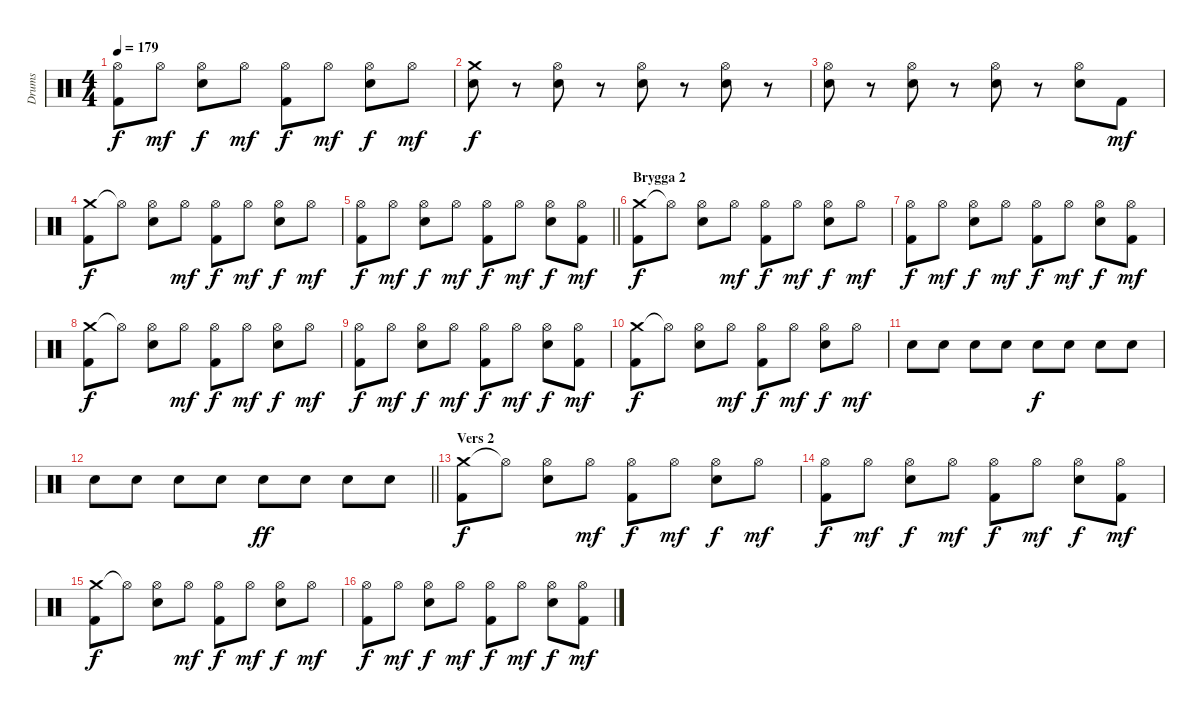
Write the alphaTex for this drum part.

\track ("Drums" "Drums") {instrument percussion}
\staff {score}
\articulation defaults
\ts (4 4)
\tempo 179
\clef neutral
\ks c
("Hi-Hat (open)" "Kick (hit) 2").8{dy f} "Hi-Hat (open)".8{dy mf} ("Hi-Hat (open)" "Electric Snare (hit)").8{dy f} "Hi-Hat (open)".8{dy mf} ("Hi-Hat (open)" "Kick (hit) 2").8{dy f} "Hi-Hat (open)".8{dy mf} ("Hi-Hat (open)" "Electric Snare (hit)").8{dy f} "Hi-Hat (open)".8{dy mf} |
("Crash medium (hit)" "Electric Snare (hit)").8{dy f} r.8 ("Hi-Hat (open)" "Electric Snare (hit)").8 r.8 ("Hi-Hat (open)" "Electric Snare (hit)").8 r.8 ("Hi-Hat (open)" "Electric Snare (hit)").8 r.8 |
("Hi-Hat (open)" "Electric Snare (hit)").8 r.8 ("Hi-Hat (open)" "Electric Snare (hit)").8 r.8 ("Hi-Hat (open)" "Electric Snare (hit)").8 r.8 ("Hi-Hat (open)" "Electric Snare (hit)").8 "Kick (hit) 2".8{dy mf} |
("Crash medium (hit)" "Kick (hit) 2").8{dy f} "Hi-Hat (open)"{t}.8 ("Hi-Hat (open)" "Electric Snare (hit)").8 "Hi-Hat (open)".8{dy mf} ("Hi-Hat (open)" "Kick (hit) 2").8{dy f} "Hi-Hat (open)".8{dy mf} ("Hi-Hat (open)" "Electric Snare (hit)").8{dy f} "Hi-Hat (open)".8{dy mf} |
\barLineRight lightlight
("Hi-Hat (open)" "Kick (hit) 2").8{dy f} "Hi-Hat (open)".8{dy mf} ("Hi-Hat (open)" "Electric Snare (hit)").8{dy f} "Hi-Hat (open)".8{dy mf} ("Hi-Hat (open)" "Kick (hit) 2").8{dy f} "Hi-Hat (open)".8{dy mf} ("Hi-Hat (open)" "Electric Snare (hit)").8{dy f} ("Hi-Hat (open)" "Kick (hit) 2").8{dy mf} |
\section ("" "Brygga 2")
("Crash medium (hit)" "Kick (hit) 2").8{dy f} "Hi-Hat (open)"{t}.8 ("Hi-Hat (open)" "Electric Snare (hit)").8 "Hi-Hat (open)".8{dy mf} ("Hi-Hat (open)" "Kick (hit) 2").8{dy f} "Hi-Hat (open)".8{dy mf} ("Hi-Hat (open)" "Electric Snare (hit)").8{dy f} "Hi-Hat (open)".8{dy mf} |
("Hi-Hat (open)" "Kick (hit) 2").8{dy f} "Hi-Hat (open)".8{dy mf} ("Hi-Hat (open)" "Electric Snare (hit)").8{dy f} "Hi-Hat (open)".8{dy mf} ("Hi-Hat (open)" "Kick (hit) 2").8{dy f} "Hi-Hat (open)".8{dy mf} ("Hi-Hat (open)" "Electric Snare (hit)").8{dy f} ("Hi-Hat (open)" "Kick (hit) 2").8{dy mf} |
("Crash medium (hit)" "Kick (hit) 2").8{dy f} "Hi-Hat (open)"{t}.8 ("Hi-Hat (open)" "Electric Snare (hit)").8 "Hi-Hat (open)".8{dy mf} ("Hi-Hat (open)" "Kick (hit) 2").8{dy f} "Hi-Hat (open)".8{dy mf} ("Hi-Hat (open)" "Electric Snare (hit)").8{dy f} "Hi-Hat (open)".8{dy mf} |
("Hi-Hat (open)" "Kick (hit) 2").8{dy f} "Hi-Hat (open)".8{dy mf} ("Hi-Hat (open)" "Electric Snare (hit)").8{dy f} "Hi-Hat (open)".8{dy mf} ("Hi-Hat (open)" "Kick (hit) 2").8{dy f} "Hi-Hat (open)".8{dy mf} ("Hi-Hat (open)" "Electric Snare (hit)").8{dy f} ("Hi-Hat (open)" "Kick (hit) 2").8{dy mf} |
("Crash medium (hit)" "Kick (hit) 2").8{dy f} "Hi-Hat (open)"{t}.8 ("Hi-Hat (open)" "Electric Snare (hit)").8 "Hi-Hat (open)".8{dy mf} ("Hi-Hat (open)" "Kick (hit) 2").8{dy f} "Hi-Hat (open)".8{dy mf} ("Hi-Hat (open)" "Electric Snare (hit)").8{dy f} "Hi-Hat (open)".8{dy mf} |
"Electric Snare (hit)".8 "Electric Snare (hit)".8 "Electric Snare (hit)".8 "Electric Snare (hit)".8 "Electric Snare (hit)".8{dy f} "Electric Snare (hit)".8 "Electric Snare (hit)".8 "Electric Snare (hit)".8 |
\barLineRight lightlight "Electric Snare (hit)".8 "Electric Snare (hit)".8 "Electric Snare (hit)".8 "Electric Snare (hit)".8 "Electric Snare (hit)".8{dy ff} "Electric Snare (hit)".8 "Electric Snare (hit)".8 "Electric Snare (hit)".8
|
\section ("" "Vers 2")
("Crash medium (hit)" "Kick (hit) 2").8{dy f} "Hi-Hat (open)"{t}.8 ("Hi-Hat (open)" "Electric Snare (hit)").8 "Hi-Hat (open)".8{dy mf} ("Hi-Hat (open)" "Kick (hit) 2").8{dy f} "Hi-Hat (open)".8{dy mf} ("Hi-Hat (open)" "Electric Snare (hit)").8{dy f} "Hi-Hat (open)".8{dy mf} |
("Hi-Hat (open)" "Kick (hit) 2").8{dy f} "Hi-Hat (open)".8{dy mf} ("Hi-Hat (open)" "Electric Snare (hit)").8{dy f} "Hi-Hat (open)".8{dy mf} ("Hi-Hat (open)" "Kick (hit) 2").8{dy f} "Hi-Hat (open)".8{dy mf} ("Hi-Hat (open)" "Electric Snare (hit)").8{dy f} ("Hi-Hat (open)" "Kick (hit) 2").8{dy mf} |
("Crash medium (hit)" "Kick (hit) 2").8{dy f} "Hi-Hat (open)"{t}.8 ("Hi-Hat (open)" "Electric Snare (hit)").8 "Hi-Hat (open)".8{dy mf} ("Hi-Hat (open)" "Kick (hit) 2").8{dy f} "Hi-Hat (open)".8{dy mf} ("Hi-Hat (open)" "Electric Snare (hit)").8{dy f} "Hi-Hat (open)".8{dy mf} |
("Hi-Hat (open)" "Kick (hit) 2").8{dy f} "Hi-Hat (open)".8{dy mf} ("Hi-Hat (open)" "Electric Snare (hit)").8{dy f} "Hi-Hat (open)".8{dy mf} ("Hi-Hat (open)" "Kick (hit) 2").8{dy f} "Hi-Hat (open)".8{dy mf} ("Hi-Hat (open)" "Electric Snare (hit)").8{dy f} ("Hi-Hat (open)" "Kick (hit) 2").8{dy mf}
